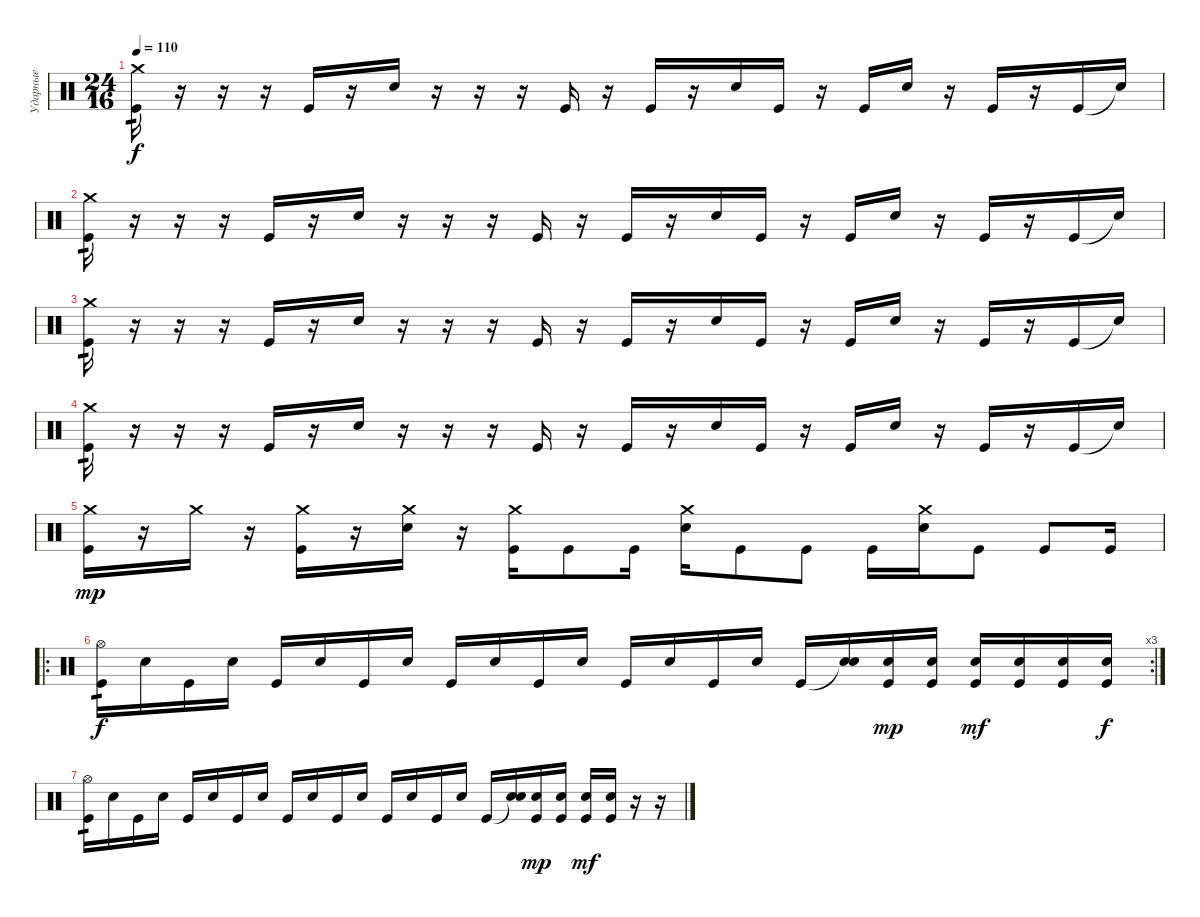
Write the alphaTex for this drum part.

\track ("Ударные" "Ударные") {instrument percussion}
\staff {score}
\articulation defaults
\ts (24 16)
\tempo 110
\clef neutral
\ks c
("Crash medium (hit)" "Kick (hit)").16{tp 1 dy f} r.16 r.16 r.16 "Kick (hit)".16 r.16 "Electric Snare (hit)".16 r.16 r.16 r.16 "Kick (hit)".16 r.16 "Kick (hit)".16 r.16 "Electric Snare (hit)".16 "Kick (hit)".16 r.16 "Kick (hit)".16 "Electric Snare (hit)".16 r.16 "Kick (hit)".16 r.16 "Kick (hit)".16 "Snare (hit)"{t}.16 |
("Crash medium (hit)" "Kick (hit)").16{tp 1} r.16 r.16 r.16 "Kick (hit)".16 r.16 "Electric Snare (hit)".16 r.16 r.16 r.16 "Kick (hit)".16 r.16 "Kick (hit)".16 r.16 "Electric Snare (hit)".16 "Kick (hit)".16 r.16 "Kick (hit)".16 "Electric Snare (hit)".16 r.16 "Kick (hit)".16 r.16 "Kick (hit)".16 "Snare (hit)"{t}.16 |
("Crash medium (hit)" "Kick (hit)").16{tp 1} r.16 r.16 r.16 "Kick (hit)".16 r.16 "Electric Snare (hit)".16 r.16 r.16 r.16 "Kick (hit)".16 r.16 "Kick (hit)".16 r.16 "Electric Snare (hit)".16 "Kick (hit)".16 r.16 "Kick (hit)".16 "Electric Snare (hit)".16 r.16 "Kick (hit)".16 r.16 "Kick (hit)".16 "Snare (hit)"{t}.16 |
("Crash medium (hit)" "Kick (hit)").16{tp 1} r.16 r.16 r.16 "Kick (hit)".16 r.16 "Electric Snare (hit)".16 r.16 r.16 r.16 "Kick (hit)".16 r.16 "Kick (hit)".16 r.16 "Electric Snare (hit)".16 "Kick (hit)".16 r.16 "Kick (hit)".16 "Electric Snare (hit)".16 r.16 "Kick (hit)".16 r.16 "Kick (hit)".16 "Snare (hit)"{t}.16 |
("Crash medium (hit)" "Kick (hit)").16{dy mp} r.16 "Crash medium (hit)".16 r.16 ("Crash medium (hit)" "Kick (hit)").16 r.16 ("Crash medium (hit)" "Electric Snare (hit)").16 r.16 ("Crash medium (hit)" "Kick (hit)").16 "Kick (hit)".8 "Kick (hit)".16 ("Crash medium (hit)" "Electric Snare (hit)").16 "Kick (hit)".8 "Kick (hit)".8 "Kick (hit)".16 ("Crash medium (hit)" "Electric Snare (hit)").16 "Kick (hit)".8 "Kick (hit)".8 "Kick (hit)".16 |
\ro
\rc 3
("Hi-Hat (open)" "Kick (hit)").16{tp 1 dy f} "Electric Snare (hit)".16 "Kick (hit)".16 "Electric Snare (hit)".16 "Kick (hit)".16 "Electric Snare (hit)".16 "Kick (hit)".16 "Electric Snare (hit)".16 "Kick (hit)".16 "Electric Snare (hit)".16 "Kick (hit)".16 "Electric Snare (hit)".16 "Kick (hit)".16 "Electric Snare (hit)".16 "Kick (hit)".16 "Electric Snare (hit)".16 "Kick (hit)".16 ("Snare (hit)"{t} "Electric Snare (hit)").16 ("Electric Snare (hit)" "Kick (hit)").16{dy mp} ("Electric Snare (hit)" "Kick (hit)").16 ("Electric Snare (hit)" "Kick (hit)").16{dy mf} ("Electric Snare (hit)" "Kick (hit)").16 ("Electric Snare (hit)" "Kick (hit)").16 ("Electric Snare (hit)" "Kick (hit)").16{dy f} |
("Hi-Hat (open)" "Kick (hit)").16{tp 1} "Electric Snare (hit)".16 "Kick (hit)".16 "Electric Snare (hit)".16 "Kick (hit)".16 "Electric Snare (hit)".16 "Kick (hit)".16 "Electric Snare (hit)".16 "Kick (hit)".16 "Electric Snare (hit)".16 "Kick (hit)".16 "Electric Snare (hit)".16 "Kick (hit)".16 "Electric Snare (hit)".16 "Kick (hit)".16 "Electric Snare (hit)".16 "Kick (hit)".16 ("Snare (hit)"{t} "Electric Snare (hit)").16 ("Electric Snare (hit)" "Kick (hit)").16{dy mp} ("Electric Snare (hit)" "Kick (hit)").16 ("Electric Snare (hit)" "Kick (hit)").16{dy mf} ("Electric Snare (hit)" "Kick (hit)").16 r.16 r.16
